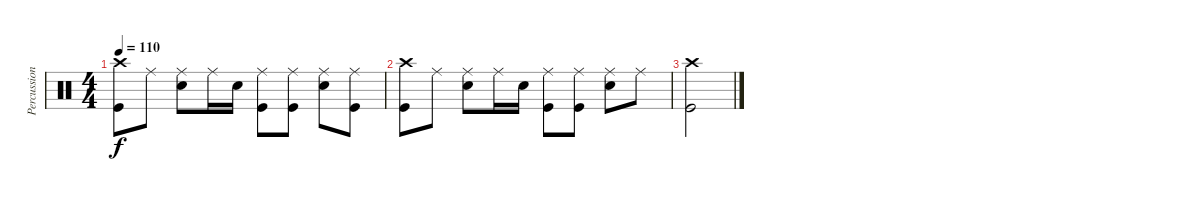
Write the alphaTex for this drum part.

\track ("Percussions" "Percussion") {instrument percussion}
\staff {score}
\articulation defaults
\ts (4 4)
\tempo 110
\clef neutral
\ks c
("Crash high (hit)" "Kick (hit)").8{dy f} "Ride (middle)".8 ("Ride (middle)" "Snare (hit) 2").8 "Ride (middle)".16 "Snare (hit) 2".16 ("Ride (middle)" "Kick (hit)").8 ("Ride (middle)" "Kick (hit)").8 ("Ride (middle)" "Snare (hit) 2").8 ("Ride (middle)" "Kick (hit)").8 |
("Crash high (hit)" "Kick (hit)").8 "Ride (middle)".8 ("Ride (middle)" "Snare (hit) 2").8 "Ride (middle)".16 "Snare (hit) 2".16 ("Ride (middle)" "Kick (hit)").8 ("Ride (middle)" "Kick (hit)").8 ("Ride (middle)" "Snare (hit) 2").8 "Ride (middle)".8 |
("Crash high (hit)" "Kick (hit)").2
